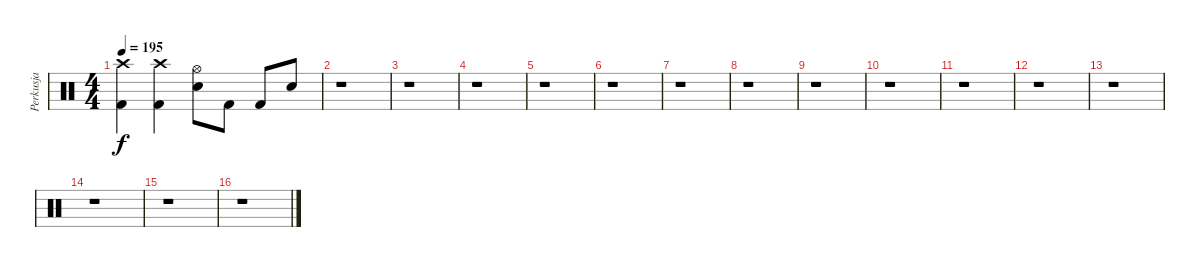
\track ("Perkusja" "Perkusja") {instrument percussion}
\staff {score}
\articulation defaults
\ts (4 4)
\tempo 195
\clef neutral
\ks c
("Kick (hit) 2" "Crash high (hit)").4{dy f} ("Kick (hit) 2" "Crash high (hit)").4 ("Electric Snare (hit)" "Hi-Hat (open)").8 "Kick (hit) 2".8 "Kick (hit) 2".8 "Electric Snare (hit)".8 |
r.1 |
r.1 |
r.1 |
r.1 |
r.1 |
r.1 |
r.1 |
r.1 |
r.1 |
r.1 |
r.1 |
r.1 |
r.1 |
r.1 |
r.1
